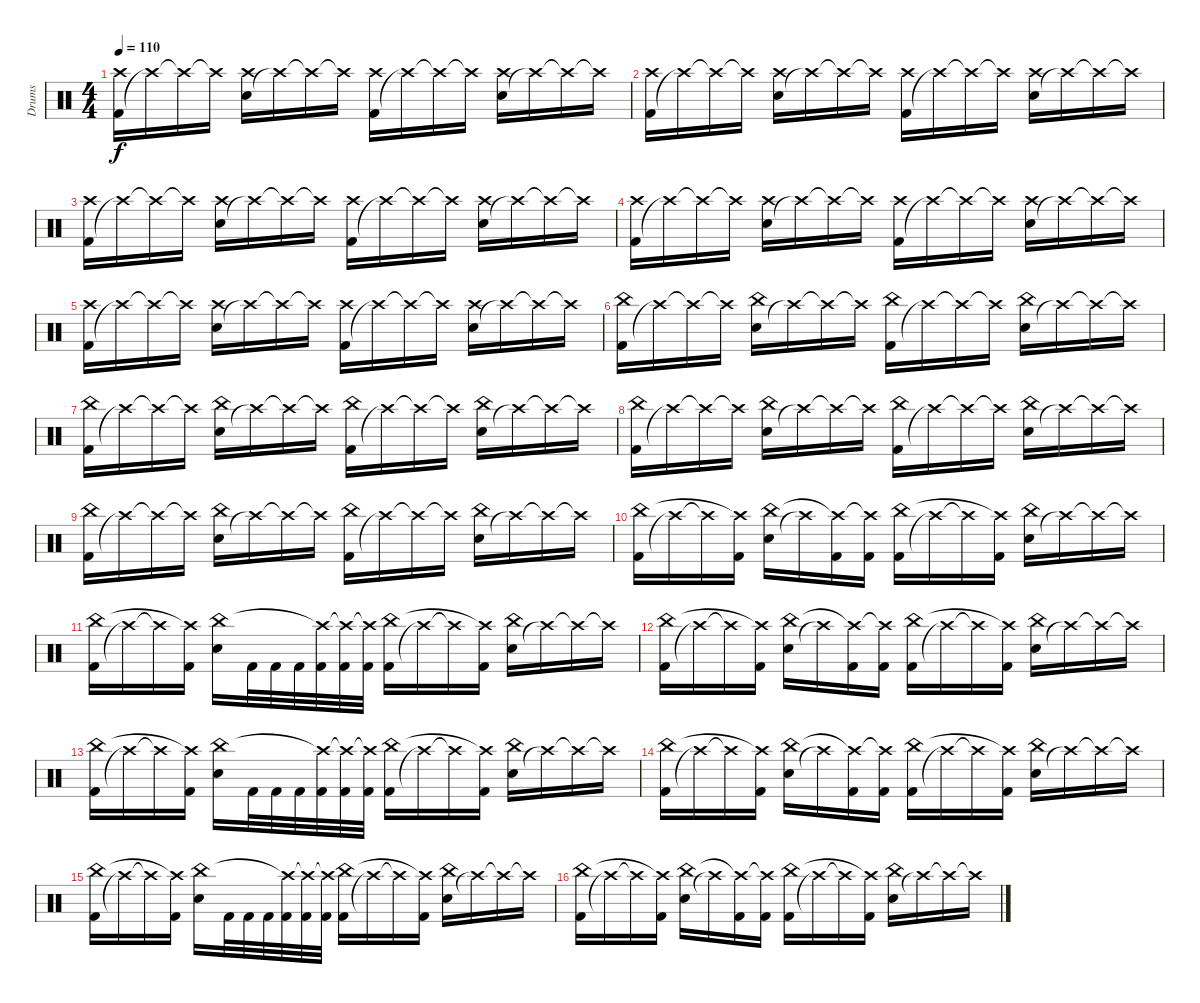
\track ("Drums" "Drums") {instrument percussion}
\staff {score}
\articulation defaults
\ts (4 4)
\tempo 110
\clef neutral
\ks c
("Kick (hit) 2" "Crash high (hit)").16{dy f} "Crash high (hit)"{t}.16 "Crash high (hit)"{t}.16 "Crash high (hit)"{t}.16 ("Snare (hit) 2" "Crash high (hit)").16 "Crash high (hit)"{t}.16 "Crash high (hit)"{t}.16 "Crash high (hit)"{t}.16 ("Kick (hit) 2" "Crash high (hit)").16 "Crash high (hit)"{t}.16 "Crash high (hit)"{t}.16 "Crash high (hit)"{t}.16 ("Snare (hit) 2" "Crash high (hit)").16 "Crash high (hit)"{t}.16 "Crash high (hit)"{t}.16 "Crash high (hit)"{t}.16 |
("Kick (hit) 2" "Crash high (hit)").16 "Crash high (hit)"{t}.16 "Crash high (hit)"{t}.16 "Crash high (hit)"{t}.16 ("Snare (hit) 2" "Crash high (hit)").16 "Crash high (hit)"{t}.16 "Crash high (hit)"{t}.16 "Crash high (hit)"{t}.16 ("Kick (hit) 2" "Crash high (hit)").16 "Crash high (hit)"{t}.16 "Crash high (hit)"{t}.16 "Crash high (hit)"{t}.16 ("Snare (hit) 2" "Crash high (hit)").16 "Crash high (hit)"{t}.16 "Crash high (hit)"{t}.16 "Crash high (hit)"{t}.16 |
("Kick (hit) 2" "Crash high (hit)").16 "Crash high (hit)"{t}.16 "Crash high (hit)"{t}.16 "Crash high (hit)"{t}.16 ("Snare (hit) 2" "Crash high (hit)").16 "Crash high (hit)"{t}.16 "Crash high (hit)"{t}.16 "Crash high (hit)"{t}.16 ("Kick (hit) 2" "Crash high (hit)").16 "Crash high (hit)"{t}.16 "Crash high (hit)"{t}.16 "Crash high (hit)"{t}.16 ("Snare (hit) 2" "Crash high (hit)").16 "Crash high (hit)"{t}.16 "Crash high (hit)"{t}.16 "Crash high (hit)"{t}.16 |
("Kick (hit) 2" "Crash high (hit)").16 "Crash high (hit)"{t}.16 "Crash high (hit)"{t}.16 "Crash high (hit)"{t}.16 ("Snare (hit) 2" "Crash high (hit)").16 "Crash high (hit)"{t}.16 "Crash high (hit)"{t}.16 "Crash high (hit)"{t}.16 ("Kick (hit) 2" "Crash high (hit)").16 "Crash high (hit)"{t}.16 "Crash high (hit)"{t}.16 "Crash high (hit)"{t}.16 ("Snare (hit) 2" "Crash high (hit)").16 "Crash high (hit)"{t}.16 "Crash high (hit)"{t}.16 "Crash high (hit)"{t}.16 |
("Kick (hit) 2" "Crash high (hit)").16 "Crash high (hit)"{t}.16 "Crash high (hit)"{t}.16 "Crash high (hit)"{t}.16 ("Snare (hit) 2" "Crash high (hit)").16 "Crash high (hit)"{t}.16 "Crash high (hit)"{t}.16 "Crash high (hit)"{t}.16 ("Kick (hit) 2" "Crash high (hit)").16 "Crash high (hit)"{t}.16 "Crash high (hit)"{t}.16 "Crash high (hit)"{t}.16 ("Snare (hit) 2" "Crash high (hit)").16 "Crash high (hit)"{t}.16 "Crash high (hit)"{t}.16 "Crash high (hit)"{t}.16 |
("Kick (hit) 2" "China (hit)").16 "Crash high (hit)"{t}.16 "Crash high (hit)"{t}.16 "Crash high (hit)"{t}.16 ("Snare (hit) 2" "China (hit)").16 "Crash high (hit)"{t}.16 "Crash high (hit)"{t}.16 "Crash high (hit)"{t}.16 ("Kick (hit) 2" "China (hit)").16 "Crash high (hit)"{t}.16 "Crash high (hit)"{t}.16 "Crash high (hit)"{t}.16 ("Snare (hit) 2" "China (hit)").16 "Crash high (hit)"{t}.16 "Crash high (hit)"{t}.16 "Crash high (hit)"{t}.16 |
("Kick (hit) 2" "China (hit)").16 "Crash high (hit)"{t}.16 "Crash high (hit)"{t}.16 "Crash high (hit)"{t}.16 ("Snare (hit) 2" "China (hit)").16 "Crash high (hit)"{t}.16 "Crash high (hit)"{t}.16 "Crash high (hit)"{t}.16 ("Kick (hit) 2" "China (hit)").16 "Crash high (hit)"{t}.16 "Crash high (hit)"{t}.16 "Crash high (hit)"{t}.16 ("Snare (hit) 2" "China (hit)").16 "Crash high (hit)"{t}.16 "Crash high (hit)"{t}.16 "Crash high (hit)"{t}.16 |
("Kick (hit) 2" "China (hit)").16 "Crash high (hit)"{t}.16 "Crash high (hit)"{t}.16 "Crash high (hit)"{t}.16 ("Snare (hit) 2" "China (hit)").16 "Crash high (hit)"{t}.16 "Crash high (hit)"{t}.16 "Crash high (hit)"{t}.16 ("Kick (hit) 2" "China (hit)").16 "Crash high (hit)"{t}.16 "Crash high (hit)"{t}.16 "Crash high (hit)"{t}.16 ("Snare (hit) 2" "China (hit)").16 "Crash high (hit)"{t}.16 "Crash high (hit)"{t}.16 "Crash high (hit)"{t}.16 |
("Kick (hit) 2" "China (hit)").16 "Crash high (hit)"{t}.16 "Crash high (hit)"{t}.16 "Crash high (hit)"{t}.16 ("Snare (hit) 2" "China (hit)").16 "Crash high (hit)"{t}.16 "Crash high (hit)"{t}.16 "Crash high (hit)"{t}.16 ("Kick (hit) 2" "China (hit)").16 "Crash high (hit)"{t}.16 "Crash high (hit)"{t}.16 "Crash high (hit)"{t}.16 ("Snare (hit) 2" "China (hit)").16 "Crash high (hit)"{t}.16 "Crash high (hit)"{t}.16 "Crash high (hit)"{t}.16 |
("Kick (hit) 2" "China (hit)").16 "Crash high (hit)"{t}.16 "Crash high (hit)"{t}.16 ("Kick (hit) 2" "Crash high (hit)"{t}).16 ("Snare (hit) 2" "China (hit)").16 "Crash high (hit)"{t}.16 ("Kick (hit) 2" "Crash high (hit)"{t}).16 ("Kick (hit) 2" "Crash high (hit)"{t}).16 ("Kick (hit) 2" "China (hit)").16 "Crash high (hit)"{t}.16 "Crash high (hit)"{t}.16 ("Kick (hit) 2" "Crash high (hit)"{t}).16 ("Snare (hit) 2" "China (hit)").16 "Crash high (hit)"{t}.16 "Crash high (hit)"{t}.16 "Crash high (hit)"{t}.16 |
("Kick (hit) 2" "China (hit)").16 "Crash high (hit)"{t}.16 "Crash high (hit)"{t}.16 ("Kick (hit) 2" "Crash high (hit)"{t}).16 ("Snare (hit) 2" "China (hit)").16 "Kick (hit) 2".32 "Kick (hit) 2".32 "Kick (hit) 2".32 ("Kick (hit) 2" "Crash high (hit)"{t}).32 ("Kick (hit) 2" "Crash high (hit)"{t}).32 ("Kick (hit) 2" "Crash high (hit)"{t}).32 ("Kick (hit) 2" "China (hit)").16 "Crash high (hit)"{t}.16 "Crash high (hit)"{t}.16 ("Kick (hit) 2" "Crash high (hit)"{t}).16 ("Snare (hit) 2" "China (hit)").16 "Crash high (hit)"{t}.16 "Crash high (hit)"{t}.16 "Crash high (hit)"{t}.16 |
("Kick (hit) 2" "China (hit)").16 "Crash high (hit)"{t}.16 "Crash high (hit)"{t}.16 ("Kick (hit) 2" "Crash high (hit)"{t}).16 ("Snare (hit) 2" "China (hit)").16 "Crash high (hit)"{t}.16 ("Kick (hit) 2" "Crash high (hit)"{t}).16 ("Kick (hit) 2" "Crash high (hit)"{t}).16 ("Kick (hit) 2" "China (hit)").16 "Crash high (hit)"{t}.16 "Crash high (hit)"{t}.16 ("Kick (hit) 2" "Crash high (hit)"{t}).16 ("Snare (hit) 2" "China (hit)").16 "Crash high (hit)"{t}.16 "Crash high (hit)"{t}.16 "Crash high (hit)"{t}.16 |
("Kick (hit) 2" "China (hit)").16 "Crash high (hit)"{t}.16 "Crash high (hit)"{t}.16 ("Kick (hit) 2" "Crash high (hit)"{t}).16 ("Snare (hit) 2" "China (hit)").16 "Kick (hit) 2".32 "Kick (hit) 2".32 "Kick (hit) 2".32 ("Kick (hit) 2" "Crash high (hit)"{t}).32 ("Kick (hit) 2" "Crash high (hit)"{t}).32 ("Kick (hit) 2" "Crash high (hit)"{t}).32 ("Kick (hit) 2" "China (hit)").16 "Crash high (hit)"{t}.16 "Crash high (hit)"{t}.16 ("Kick (hit) 2" "Crash high (hit)"{t}).16 ("Snare (hit) 2" "China (hit)").16 "Crash high (hit)"{t}.16 "Crash high (hit)"{t}.16 "Crash high (hit)"{t}.16 |
("Kick (hit) 2" "China (hit)").16 "Crash high (hit)"{t}.16 "Crash high (hit)"{t}.16 ("Kick (hit) 2" "Crash high (hit)"{t}).16 ("Snare (hit) 2" "China (hit)").16 "Crash high (hit)"{t}.16 ("Kick (hit) 2" "Crash high (hit)"{t}).16 ("Kick (hit) 2" "Crash high (hit)"{t}).16 ("Kick (hit) 2" "China (hit)").16 "Crash high (hit)"{t}.16 "Crash high (hit)"{t}.16 ("Kick (hit) 2" "Crash high (hit)"{t}).16 ("Snare (hit) 2" "China (hit)").16 "Crash high (hit)"{t}.16 "Crash high (hit)"{t}.16 "Crash high (hit)"{t}.16 |
("Kick (hit) 2" "China (hit)").16 "Crash high (hit)"{t}.16 "Crash high (hit)"{t}.16 ("Kick (hit) 2" "Crash high (hit)"{t}).16 ("Snare (hit) 2" "China (hit)").16 "Kick (hit) 2".32 "Kick (hit) 2".32 "Kick (hit) 2".32 ("Kick (hit) 2" "Crash high (hit)"{t}).32 ("Kick (hit) 2" "Crash high (hit)"{t}).32 ("Kick (hit) 2" "Crash high (hit)"{t}).32 ("Kick (hit) 2" "China (hit)").16 "Crash high (hit)"{t}.16 "Crash high (hit)"{t}.16 ("Kick (hit) 2" "Crash high (hit)"{t}).16 ("Snare (hit) 2" "China (hit)").16 "Crash high (hit)"{t}.16 "Crash high (hit)"{t}.16 "Crash high (hit)"{t}.16 |
("Kick (hit) 2" "China (hit)").16 "Crash high (hit)"{t}.16 "Crash high (hit)"{t}.16 ("Kick (hit) 2" "Crash high (hit)"{t}).16 ("Snare (hit) 2" "China (hit)").16 "Crash high (hit)"{t}.16 ("Kick (hit) 2" "Crash high (hit)"{t}).16 ("Kick (hit) 2" "Crash high (hit)"{t}).16 ("Kick (hit) 2" "China (hit)").16 "Crash high (hit)"{t}.16 "Crash high (hit)"{t}.16 ("Kick (hit) 2" "Crash high (hit)"{t}).16 ("Snare (hit) 2" "China (hit)").16 "Crash high (hit)"{t}.16 "Crash high (hit)"{t}.16 "Crash high (hit)"{t}.16
